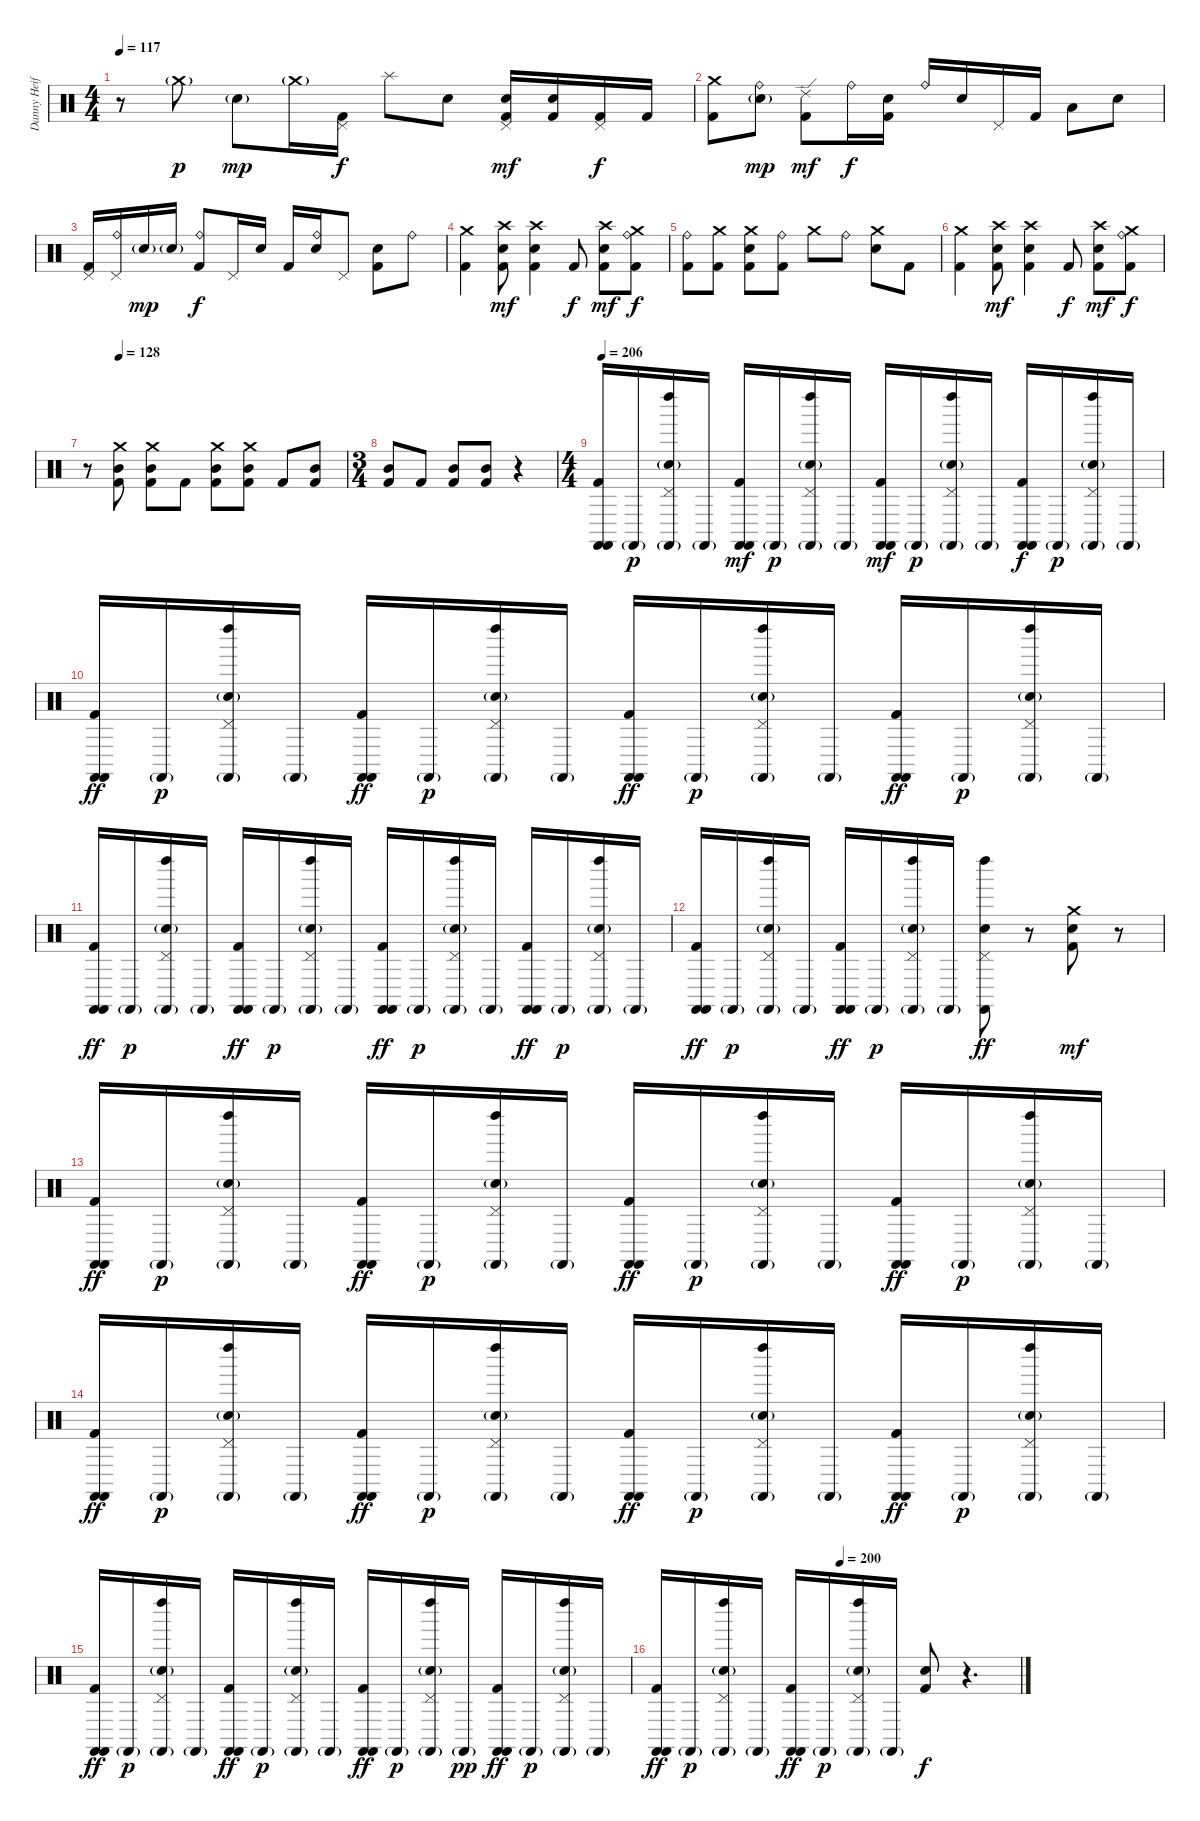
\track ("Danny Heifetz - Drums" "Danny Heif") {instrument percussion}
\staff {score}
\articulation defaults
\ts (4 4)
\tempo 117
\clef neutral
\ks c
r.8{dy f} "Crash medium (hit)"{g}.8{dy p} "Electric Snare (hit)"{g}.8{dy mp} "Crash medium (hit)"{g}.16 ("Pedal Hi-Hat (hit)" "Kick (hit) 2").16{dy f} "Splash (hit)".8 "Electric Snare (hit)".8 ("Pedal Hi-Hat (hit)" "Electric Snare (hit)" "Kick (hit) 2").16{dy mf} ("Electric Snare (hit)" "Kick (hit) 2").16 ("Pedal Hi-Hat (hit)" "Kick (hit) 2").16{dy f} "Kick (hit) 2".16 |
("Crash medium (hit)" "Kick (hit) 2").8{volume 12} ("Ride (bell)" "Electric Snare (hit)"{g}).8{dy mp} ("Ride (edge) 2" "Kick (hit) 2").8{dy mf} "Ride (bell)".16{dy f} ("Electric Snare (hit)" "Kick (hit) 2").16 "Ride (bell)".16 "Electric Snare (hit)".16 "Pedal Hi-Hat (hit)".16 "Kick (hit) 2".16 "Low Tom (hit)".8 "Electric Snare (hit)".8 |
("Pedal Hi-Hat (hit)" "Kick (hit) 2").16 ("Ride (bell)" "Pedal Hi-Hat (hit)").16 "Electric Snare (hit)"{g}.16{dy mp} "Electric Snare (hit)"{g}.16 ("Ride (bell)" "Kick (hit) 2").8{dy f} "Pedal Hi-Hat (hit)".16 "Electric Snare (hit)".16 "Kick (hit) 2".16 ("Ride (bell)" "Electric Snare (hit)").16 "Pedal Hi-Hat (hit)".8 ("Electric Snare (hit)" "Kick (hit) 2").8 "Ride (bell)".8 |
("Crash medium (hit)" "Kick (hit) 2").4{volume 10} ("Crash high (hit)" "Electric Snare (hit)" "Kick (hit) 2").8{dy mf} ("Crash high (hit)" "Electric Snare (hit)" "Kick (hit) 2").4 "Kick (hit) 2".8{dy f} ("Crash high (hit)" "Electric Snare (hit)" "Kick (hit) 2").8{dy mf} ("Crash medium (hit)" "Ride (bell)" "Kick (hit) 2").8{dy f} |
("Ride (bell)" "Kick (hit) 2").8 ("Crash medium (hit)" "Kick (hit) 2").8 ("Crash medium (hit)" "Electric Snare (hit)" "Kick (hit) 2").8 ("Ride (bell)" "Kick (hit) 2").8 "Crash medium (hit)".8 "Ride (bell)".8 ("Crash medium (hit)" "Electric Snare (hit)").8 "Kick (hit) 2".8 |
("Crash medium (hit)" "Kick (hit) 2").4 ("Crash high (hit)" "Electric Snare (hit)" "Kick (hit) 2").8{dy mf} ("Crash high (hit)" "Electric Snare (hit)" "Kick (hit) 2").4 "Kick (hit) 2".8{dy f} ("Crash high (hit)" "Electric Snare (hit)" "Kick (hit) 2").8{dy mf} ("Crash medium (hit)" "Ride (bell)" "Kick (hit) 2").8{dy f} |
\tempo (128 0.125)
r.8 ("Crash medium (hit)" "Mid Tom (hit)" "Kick (hit) 2").8 ("Crash medium (hit)" "Mid Tom (hit)" "Kick (hit) 2").8 "Kick (hit) 2".8 ("Crash medium (hit)" "Mid Tom (hit)" "Kick (hit) 2").8 ("Crash medium (hit)" "Mid Tom (hit)" "Kick (hit) 2").8 "Kick (hit) 2".8 ("Mid Tom (hit)" "Kick (hit) 2").8 |
\ts (3 4)
("Mid Tom (hit)" "Kick (hit) 2").8 "Kick (hit) 2".8 ("Mid Tom (hit)" "Kick (hit) 2").8 ("Mid Tom (hit)" "Kick (hit) 2").8 r.4 |
\ts (4 4)
\tempo 206
("Kick (hit) 2" "Castanets (hit)" "Castanets (hit)").16{volume 16} "Castanets (hit)"{g}.16{dy p} ("Left Maraca (hit)" "Pedal Hi-Hat (hit)" "Electric Snare (hit)"{g} "Castanets (hit)"{g}).16 "Castanets (hit)"{g}.16 ("Kick (hit) 2" "Castanets (hit)" "Castanets (hit)").16{dy mf} "Castanets (hit)"{g}.16{dy p} ("Left Maraca (hit)" "Pedal Hi-Hat (hit)" "Electric Snare (hit)"{g} "Castanets (hit)"{g}).16 "Castanets (hit)"{g}.16 ("Kick (hit) 2" "Castanets (hit)" "Castanets (hit)").16{dy mf} "Castanets (hit)"{g}.16{dy p} ("Left Maraca (hit)" "Pedal Hi-Hat (hit)" "Electric Snare (hit)"{g} "Castanets (hit)"{g}).16 "Castanets (hit)"{g}.16 ("Kick (hit) 2" "Castanets (hit)" "Castanets (hit)").16{dy f} "Castanets (hit)"{g}.16{dy p} ("Left Maraca (hit)" "Pedal Hi-Hat (hit)" "Electric Snare (hit)"{g} "Castanets (hit)"{g}).16 "Castanets (hit)"{g}.16 |
("Kick (hit) 2" "Castanets (hit)" "Castanets (hit)").16{dy ff} "Castanets (hit)"{g}.16{dy p} ("Left Maraca (hit)" "Pedal Hi-Hat (hit)" "Electric Snare (hit)"{g} "Castanets (hit)"{g}).16 "Castanets (hit)"{g}.16 ("Kick (hit) 2" "Castanets (hit)" "Castanets (hit)").16{dy ff} "Castanets (hit)"{g}.16{dy p} ("Left Maraca (hit)" "Pedal Hi-Hat (hit)" "Electric Snare (hit)"{g} "Castanets (hit)"{g}).16 "Castanets (hit)"{g}.16 ("Kick (hit) 2" "Castanets (hit)" "Castanets (hit)").16{dy ff} "Castanets (hit)"{g}.16{dy p} ("Left Maraca (hit)" "Pedal Hi-Hat (hit)" "Electric Snare (hit)"{g} "Castanets (hit)"{g}).16 "Castanets (hit)"{g}.16 ("Kick (hit) 2" "Castanets (hit)" "Castanets (hit)").16{dy ff} "Castanets (hit)"{g}.16{dy p} ("Left Maraca (hit)" "Pedal Hi-Hat (hit)" "Electric Snare (hit)"{g} "Castanets (hit)"{g}).16 "Castanets (hit)"{g}.16 |
("Kick (hit) 2" "Castanets (hit)" "Castanets (hit)").16{dy ff} "Castanets (hit)"{g}.16{dy p} ("Left Maraca (hit)" "Pedal Hi-Hat (hit)" "Electric Snare (hit)"{g} "Castanets (hit)"{g}).16 "Castanets (hit)"{g}.16 ("Kick (hit) 2" "Castanets (hit)" "Castanets (hit)").16{dy ff} "Castanets (hit)"{g}.16{dy p} ("Left Maraca (hit)" "Pedal Hi-Hat (hit)" "Electric Snare (hit)"{g} "Castanets (hit)"{g}).16 "Castanets (hit)"{g}.16 ("Kick (hit) 2" "Castanets (hit)" "Castanets (hit)").16{dy ff} "Castanets (hit)"{g}.16{dy p} ("Left Maraca (hit)" "Pedal Hi-Hat (hit)" "Electric Snare (hit)"{g} "Castanets (hit)"{g}).16 "Castanets (hit)"{g}.16 ("Kick (hit) 2" "Castanets (hit)" "Castanets (hit)").16{dy ff} "Castanets (hit)"{g}.16{dy p} ("Left Maraca (hit)" "Pedal Hi-Hat (hit)" "Electric Snare (hit)"{g} "Castanets (hit)"{g}).16 "Castanets (hit)"{g}.16 |
("Kick (hit) 2" "Castanets (hit)" "Castanets (hit)").16{dy ff} "Castanets (hit)"{g}.16{dy p} ("Left Maraca (hit)" "Pedal Hi-Hat (hit)" "Electric Snare (hit)"{g} "Castanets (hit)"{g}).16 "Castanets (hit)"{g}.16 ("Kick (hit) 2" "Castanets (hit)" "Castanets (hit)").16{dy ff} "Castanets (hit)"{g}.16{dy p} ("Left Maraca (hit)" "Pedal Hi-Hat (hit)" "Electric Snare (hit)"{g} "Castanets (hit)"{g}).16 "Castanets (hit)"{g}.16 ("Left Maraca (hit)" "Pedal Hi-Hat (hit)" "Electric Snare (hit)" "Castanets (hit)").8{dy ff} r.8 ("Crash medium (hit)" "Electric Snare (hit)" "Kick (hit) 2").8{dy mf} r.8 |
("Kick (hit) 2" "Castanets (hit)" "Castanets (hit)").16{dy ff} "Castanets (hit)"{g}.16{dy p} ("Left Maraca (hit)" "Pedal Hi-Hat (hit)" "Electric Snare (hit)"{g} "Castanets (hit)"{g}).16 "Castanets (hit)"{g}.16 ("Kick (hit) 2" "Castanets (hit)" "Castanets (hit)").16{dy ff} "Castanets (hit)"{g}.16{dy p} ("Left Maraca (hit)" "Pedal Hi-Hat (hit)" "Electric Snare (hit)"{g} "Castanets (hit)"{g}).16 "Castanets (hit)"{g}.16 ("Kick (hit) 2" "Castanets (hit)" "Castanets (hit)").16{dy ff} "Castanets (hit)"{g}.16{dy p} ("Left Maraca (hit)" "Pedal Hi-Hat (hit)" "Electric Snare (hit)"{g} "Castanets (hit)"{g}).16 "Castanets (hit)"{g}.16 ("Kick (hit) 2" "Castanets (hit)" "Castanets (hit)").16{dy ff} "Castanets (hit)"{g}.16{dy p} ("Left Maraca (hit)" "Pedal Hi-Hat (hit)" "Electric Snare (hit)"{g} "Castanets (hit)"{g}).16 "Castanets (hit)"{g}.16 |
("Kick (hit) 2" "Castanets (hit)" "Castanets (hit)").16{dy ff} "Castanets (hit)"{g}.16{dy p} ("Left Maraca (hit)" "Pedal Hi-Hat (hit)" "Electric Snare (hit)"{g} "Castanets (hit)"{g}).16 "Castanets (hit)"{g}.16 ("Kick (hit) 2" "Castanets (hit)" "Castanets (hit)").16{dy ff} "Castanets (hit)"{g}.16{dy p} ("Left Maraca (hit)" "Pedal Hi-Hat (hit)" "Electric Snare (hit)"{g} "Castanets (hit)"{g}).16 "Castanets (hit)"{g}.16 ("Kick (hit) 2" "Castanets (hit)" "Castanets (hit)").16{dy ff} "Castanets (hit)"{g}.16{dy p} ("Left Maraca (hit)" "Pedal Hi-Hat (hit)" "Electric Snare (hit)"{g} "Castanets (hit)"{g}).16 "Castanets (hit)"{g}.16 ("Kick (hit) 2" "Castanets (hit)" "Castanets (hit)").16{dy ff} "Castanets (hit)"{g}.16{dy p} ("Left Maraca (hit)" "Pedal Hi-Hat (hit)" "Electric Snare (hit)"{g} "Castanets (hit)"{g}).16 "Castanets (hit)"{g}.16 |
("Kick (hit) 2" "Castanets (hit)" "Castanets (hit)").16{dy ff} "Castanets (hit)"{g}.16{dy p} ("Left Maraca (hit)" "Pedal Hi-Hat (hit)" "Electric Snare (hit)"{g} "Castanets (hit)"{g}).16 "Castanets (hit)"{g}.16 ("Kick (hit) 2" "Castanets (hit)" "Castanets (hit)").16{dy ff} "Castanets (hit)"{g}.16{dy p} ("Left Maraca (hit)" "Pedal Hi-Hat (hit)" "Electric Snare (hit)"{g} "Castanets (hit)"{g}).16 "Castanets (hit)"{g}.16 ("Kick (hit) 2" "Castanets (hit)" "Castanets (hit)").16{dy ff} "Castanets (hit)"{g}.16{dy p} ("Left Maraca (hit)" "Pedal Hi-Hat (hit)" "Electric Snare (hit)"{g} "Castanets (hit)"{g}).16 "Castanets (hit)"{g}.16{dy pp} ("Kick (hit) 2" "Castanets (hit)" "Castanets (hit)").16{dy ff} "Castanets (hit)"{g}.16{dy p} ("Left Maraca (hit)" "Pedal Hi-Hat (hit)" "Electric Snare (hit)"{g} "Castanets (hit)"{g}).16 "Castanets (hit)"{g}.16 |
\tempo (200 0.5)
("Kick (hit) 2" "Castanets (hit)" "Castanets (hit)").16{dy ff} "Castanets (hit)"{g}.16{dy p} ("Left Maraca (hit)" "Pedal Hi-Hat (hit)" "Electric Snare (hit)"{g} "Castanets (hit)"{g}).16 "Castanets (hit)"{g}.16 ("Kick (hit) 2" "Castanets (hit)" "Castanets (hit)").16{dy ff} "Castanets (hit)"{g}.16{dy p} ("Left Maraca (hit)" "Pedal Hi-Hat (hit)" "Electric Snare (hit)"{g} "Castanets (hit)"{g}).16 "Castanets (hit)"{g}.16 ("Electric Snare (hit)" "Kick (hit) 2").8{dy f} r.4{d}
